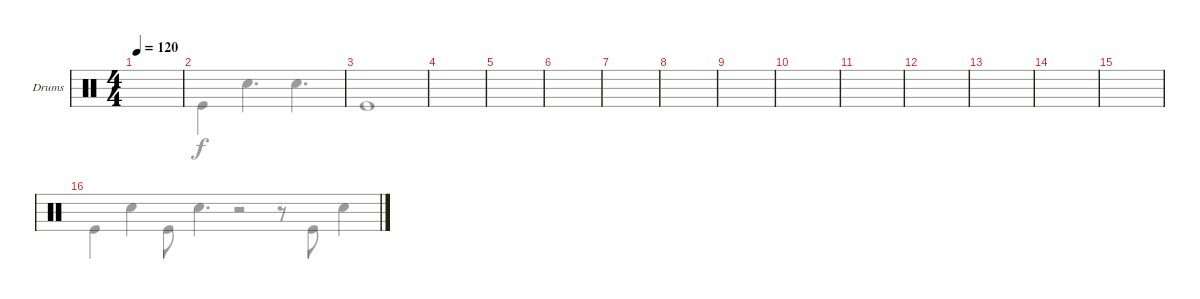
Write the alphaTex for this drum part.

\defaultSystemsLayout 4
\bracketExtendMode groupsimilarinstruments
\firstSystemTrackNameOrientation horizontal
\otherSystemsTrackNameOrientation horizontal
\track ("Drums" "Drums") {instrument percussion}
\staff {score}
\articulation defaults
\voice
\ts (4 4)
\scale
0.512857
\tempo 120
\accidentals auto
\clef neutral
\ottava regular
\simile none
\ks aminor
|
\scale
0.487179 |
\scale
0.5 |
\scale
0.5 |
\scale
0.5 |
\scale
0.5 |
\scale
0.531429 |
\scale
0.468661 |
\scale
0.525714 |
\scale
0.474359 |
\scale
0.52 |
\scale
0.480057 |
\scale
0.515714 |
\scale
0.48433 |
\scale
0.51229 |
\scale
0.488508
\voice
\clef neutral
\ottava regular
\simile none
\ks aminor "Kick (hit)".4{dy f} "Snare (hit) 2".4 "Kick (hit)".8 "Snare (hit) 2".4{d}
|
"Kick (hit)".4 "Snare (hit) 2".4{d} "Snare (hit) 2".4{d} |
"Kick (hit)".1 |
|
|
|
|
|
|
|
|
|
|
|
|
r.2 r.8 "Kick (hit)".8 "Snare (hit) 2".4
